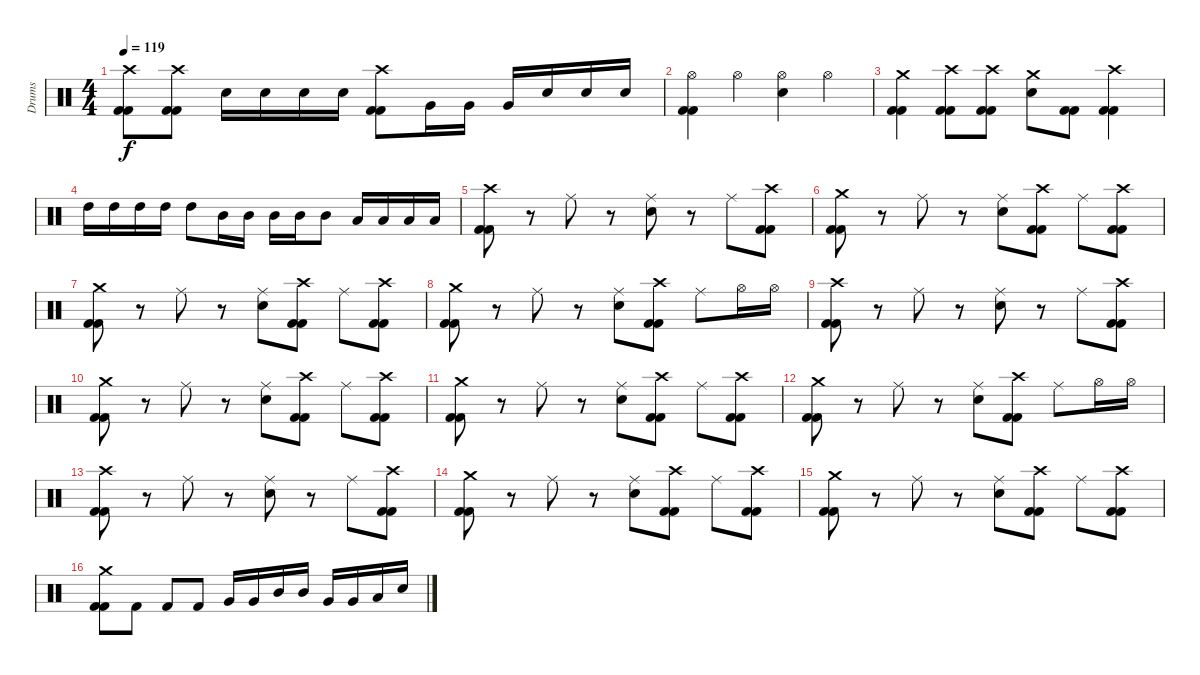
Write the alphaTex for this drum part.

\track ("Drums" "Drums") {instrument percussion}
\staff {score}
\articulation defaults
\ts (4 4)
\tempo 119
\clef neutral
\ks c
("Crash high (hit)" "Kick (hit) 2" "Kick (hit) 2").8{dy f} ("Crash high (hit)" "Kick (hit) 2" "Kick (hit) 2").8 "Electric Snare (hit)".16 "Electric Snare (hit)".16 "Electric Snare (hit)".16 "Electric Snare (hit)".16 ("Crash high (hit)" "Kick (hit) 2" "Kick (hit) 2").8 "Very Low Tom (hit)".16 "Very Low Tom (hit)".16 "Very Low Tom (hit)".16 "Electric Snare (hit)".16 "Electric Snare (hit)".16 "Electric Snare (hit)".16 |
("Hi-Hat (open)" "Kick (hit) 2" "Kick (hit) 2").4 "Hi-Hat (open)".4 ("Hi-Hat (open)" "Electric Snare (hit)").4 "Hi-Hat (open)".4 |
("Crash medium (hit)" "Kick (hit) 2" "Kick (hit) 2").4 ("Crash high (hit)" "Kick (hit) 2" "Kick (hit) 2").8 ("Crash high (hit)" "Kick (hit) 2" "Kick (hit) 2").8 ("Crash medium (hit)" "Electric Snare (hit)").8 ("Kick (hit) 2" "Kick (hit) 2").8 ("Crash high (hit)" "Kick (hit) 2" "Kick (hit) 2").4 |
"High Tom (hit)".16 "High Tom (hit)".16 "High Tom (hit)".16 "High Tom (hit)".16 "High Tom (hit)".8 "Mid Tom (hit)".16 "Mid Tom (hit)".16 "Mid Tom (hit)".16 "Mid Tom (hit)".16 "Mid Tom (hit)".8 "Low Tom (hit)".16 "Low Tom (hit)".16 "Low Tom (hit)".16 "Low Tom (hit)".16 |
("Crash high (hit)" "Kick (hit) 2" "Kick (hit) 2").8 r.8 "Ride (middle)".8 r.8 ("Ride (middle)" "Electric Snare (hit)").8 r.8 "Ride (middle)".8 ("Crash high (hit)" "Kick (hit) 2" "Kick (hit) 2").8 |
("Crash medium (hit)" "Kick (hit) 2" "Kick (hit) 2").8 r.8 "Ride (middle)".8 r.8 ("Ride (middle)" "Electric Snare (hit)").8 ("Crash high (hit)" "Kick (hit) 2" "Kick (hit) 2").8 "Ride (middle)".8 ("Crash high (hit)" "Kick (hit) 2" "Kick (hit) 2").8 |
("Crash medium (hit)" "Kick (hit) 2" "Kick (hit) 2").8 r.8 "Ride (middle)".8 r.8 ("Ride (middle)" "Electric Snare (hit)").8 ("Crash high (hit)" "Kick (hit) 2" "Kick (hit) 2").8 "Ride (middle)".8 ("Crash high (hit)" "Kick (hit) 2" "Kick (hit) 2").8 |
("Crash medium (hit)" "Kick (hit) 2" "Kick (hit) 2").8 r.8 "Ride (middle)".8 r.8 ("Ride (middle)" "Electric Snare (hit)").8 ("Crash high (hit)" "Kick (hit) 2" "Kick (hit) 2").8 "Ride (middle)".8 "Hi-Hat (open)".16 "Hi-Hat (open)".16 |
("Crash high (hit)" "Kick (hit) 2" "Kick (hit) 2").8 r.8 "Ride (middle)".8 r.8 ("Ride (middle)" "Electric Snare (hit)").8 r.8 "Ride (middle)".8 ("Crash high (hit)" "Kick (hit) 2" "Kick (hit) 2").8 |
("Crash medium (hit)" "Kick (hit) 2" "Kick (hit) 2").8 r.8 "Ride (middle)".8 r.8 ("Ride (middle)" "Electric Snare (hit)").8 ("Crash high (hit)" "Kick (hit) 2" "Kick (hit) 2").8 "Ride (middle)".8 ("Crash high (hit)" "Kick (hit) 2" "Kick (hit) 2").8 |
("Crash medium (hit)" "Kick (hit) 2" "Kick (hit) 2").8 r.8 "Ride (middle)".8 r.8 ("Ride (middle)" "Electric Snare (hit)").8 ("Crash high (hit)" "Kick (hit) 2" "Kick (hit) 2").8 "Ride (middle)".8 ("Crash high (hit)" "Kick (hit) 2" "Kick (hit) 2").8 |
("Crash medium (hit)" "Kick (hit) 2" "Kick (hit) 2").8 r.8 "Ride (middle)".8 r.8 ("Ride (middle)" "Electric Snare (hit)").8 ("Crash high (hit)" "Kick (hit) 2" "Kick (hit) 2").8 "Ride (middle)".8 "Hi-Hat (open)".16 "Hi-Hat (open)".16 |
("Crash high (hit)" "Kick (hit) 2" "Kick (hit) 2").8 r.8 "Ride (middle)".8 r.8 ("Ride (middle)" "Electric Snare (hit)").8 r.8 "Ride (middle)".8 ("Crash high (hit)" "Kick (hit) 2" "Kick (hit) 2").8 |
("Crash medium (hit)" "Kick (hit) 2" "Kick (hit) 2").8 r.8 "Ride (middle)".8 r.8 ("Ride (middle)" "Electric Snare (hit)").8 ("Crash high (hit)" "Kick (hit) 2" "Kick (hit) 2").8 "Ride (middle)".8 ("Crash high (hit)" "Kick (hit) 2" "Kick (hit) 2").8 |
("Crash medium (hit)" "Kick (hit) 2" "Kick (hit) 2").8 r.8 "Ride (middle)".8 r.8 ("Ride (middle)" "Electric Snare (hit)").8 ("Crash high (hit)" "Kick (hit) 2" "Kick (hit) 2").8 "Ride (middle)".8 ("Crash high (hit)" "Kick (hit) 2" "Kick (hit) 2").8 |
("Crash medium (hit)" "Kick (hit) 2" "Kick (hit) 2").8 "Kick (hit) 2".8 "Kick (hit) 2".8 "Kick (hit) 2".8 "Very Low Tom (hit)".16 "Very Low Tom (hit)".16 "Mid Tom (hit)".16 "Mid Tom (hit)".16 "Very Low Tom (hit)".16 "Very Low Tom (hit)".16 "Low Floor Tom (hit)".16 "Electric Snare (hit)".16
